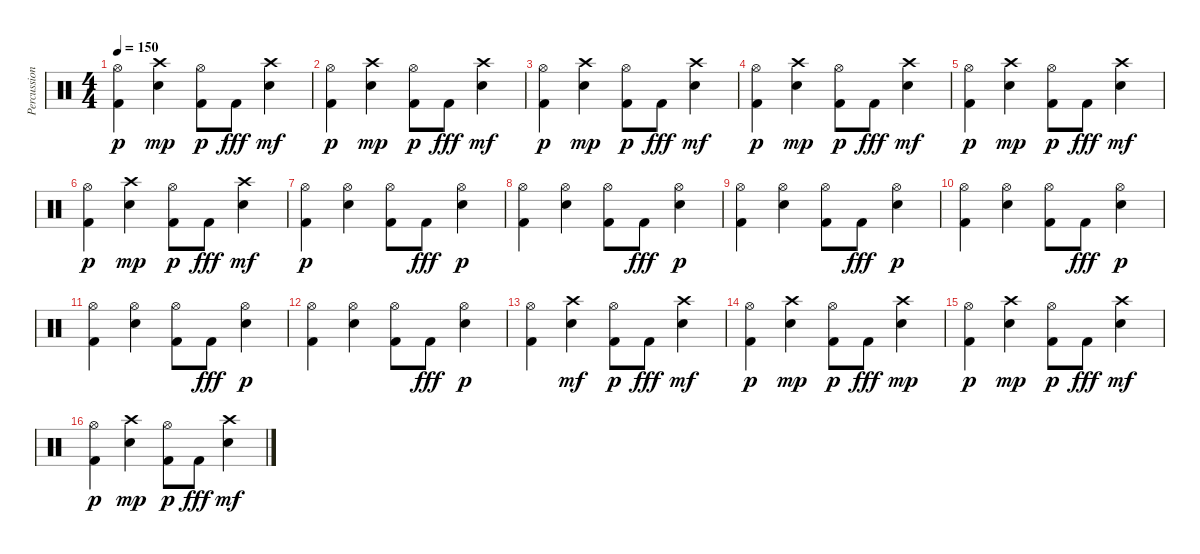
\track ("Percussions" "Percussion") {instrument percussion}
\staff {score}
\articulation defaults
\ts (4 4)
\tempo 150
\clef neutral
\ks c
("Kick (hit) 2" "Hi-Hat (open)").4{dy p} ("Snare (hit) 2" "Crash high (hit)").4{dy mp} ("Kick (hit) 2" "Hi-Hat (open)").8{dy p} "Kick (hit) 2".8{dy fff} ("Snare (hit) 2" "Crash high (hit)").4{dy mf} |
("Kick (hit) 2" "Hi-Hat (open)").4{dy p} ("Snare (hit) 2" "Crash high (hit)").4{dy mp} ("Kick (hit) 2" "Hi-Hat (open)").8{dy p} "Kick (hit) 2".8{dy fff} ("Snare (hit) 2" "Crash high (hit)").4{dy mf} |
("Kick (hit) 2" "Hi-Hat (open)").4{dy p} ("Snare (hit) 2" "Crash high (hit)").4{dy mp} ("Kick (hit) 2" "Hi-Hat (open)").8{dy p} "Kick (hit) 2".8{dy fff} ("Snare (hit) 2" "Crash high (hit)").4{dy mf} |
("Kick (hit) 2" "Hi-Hat (open)").4{dy p} ("Snare (hit) 2" "Crash high (hit)").4{dy mp} ("Kick (hit) 2" "Hi-Hat (open)").8{dy p} "Kick (hit) 2".8{dy fff} ("Snare (hit) 2" "Crash high (hit)").4{dy mf} |
("Kick (hit) 2" "Hi-Hat (open)").4{dy p} ("Snare (hit) 2" "Crash high (hit)").4{dy mp} ("Kick (hit) 2" "Hi-Hat (open)").8{dy p} "Kick (hit) 2".8{dy fff} ("Snare (hit) 2" "Crash high (hit)").4{dy mf} |
("Kick (hit) 2" "Hi-Hat (open)").4{dy p} ("Snare (hit) 2" "Crash high (hit)").4{dy mp} ("Kick (hit) 2" "Hi-Hat (open)").8{dy p} "Kick (hit) 2".8{dy fff} ("Snare (hit) 2" "Crash high (hit)").4{dy mf} |
("Kick (hit) 2" "Hi-Hat (open)").4{dy p} ("Snare (hit) 2" "Hi-Hat (open)").4 ("Kick (hit) 2" "Hi-Hat (open)").8 "Kick (hit) 2".8{dy fff} ("Snare (hit) 2" "Hi-Hat (open)").4{dy p} |
("Kick (hit) 2" "Hi-Hat (open)").4 ("Snare (hit) 2" "Hi-Hat (open)").4 ("Kick (hit) 2" "Hi-Hat (open)").8 "Kick (hit) 2".8{dy fff} ("Snare (hit) 2" "Hi-Hat (open)").4{dy p} |
("Kick (hit) 2" "Hi-Hat (open)").4 ("Snare (hit) 2" "Hi-Hat (open)").4 ("Kick (hit) 2" "Hi-Hat (open)").8 "Kick (hit) 2".8{dy fff} ("Snare (hit) 2" "Hi-Hat (open)").4{dy p} |
("Kick (hit) 2" "Hi-Hat (open)").4 ("Snare (hit) 2" "Hi-Hat (open)").4 ("Kick (hit) 2" "Hi-Hat (open)").8 "Kick (hit) 2".8{dy fff} ("Snare (hit) 2" "Hi-Hat (open)").4{dy p} |
("Kick (hit) 2" "Hi-Hat (open)").4 ("Snare (hit) 2" "Hi-Hat (open)").4 ("Kick (hit) 2" "Hi-Hat (open)").8 "Kick (hit) 2".8{dy fff} ("Snare (hit) 2" "Hi-Hat (open)").4{dy p} |
("Kick (hit) 2" "Hi-Hat (open)").4 ("Snare (hit) 2" "Hi-Hat (open)").4 ("Kick (hit) 2" "Hi-Hat (open)").8 "Kick (hit) 2".8{dy fff} ("Snare (hit) 2" "Hi-Hat (open)").4{dy p} |
("Kick (hit) 2" "Hi-Hat (open)").4 ("Snare (hit) 2" "Crash high (hit)").4{dy mf} ("Kick (hit) 2" "Hi-Hat (open)").8{dy p} "Kick (hit) 2".8{dy fff} ("Snare (hit) 2" "Crash high (hit)").4{dy mf} |
("Kick (hit) 2" "Hi-Hat (open)").4{dy p} ("Snare (hit) 2" "Crash high (hit)").4{dy mp} ("Kick (hit) 2" "Hi-Hat (open)").8{dy p} "Kick (hit) 2".8{dy fff} ("Snare (hit) 2" "Crash high (hit)").4{dy mp} |
("Kick (hit) 2" "Hi-Hat (open)").4{dy p} ("Snare (hit) 2" "Crash high (hit)").4{dy mp} ("Kick (hit) 2" "Hi-Hat (open)").8{dy p} "Kick (hit) 2".8{dy fff} ("Snare (hit) 2" "Crash high (hit)").4{dy mf} |
("Kick (hit) 2" "Hi-Hat (open)").4{dy p} ("Snare (hit) 2" "Crash high (hit)").4{dy mp} ("Kick (hit) 2" "Hi-Hat (open)").8{dy p} "Kick (hit) 2".8{dy fff} ("Snare (hit) 2" "Crash high (hit)").4{dy mf}
